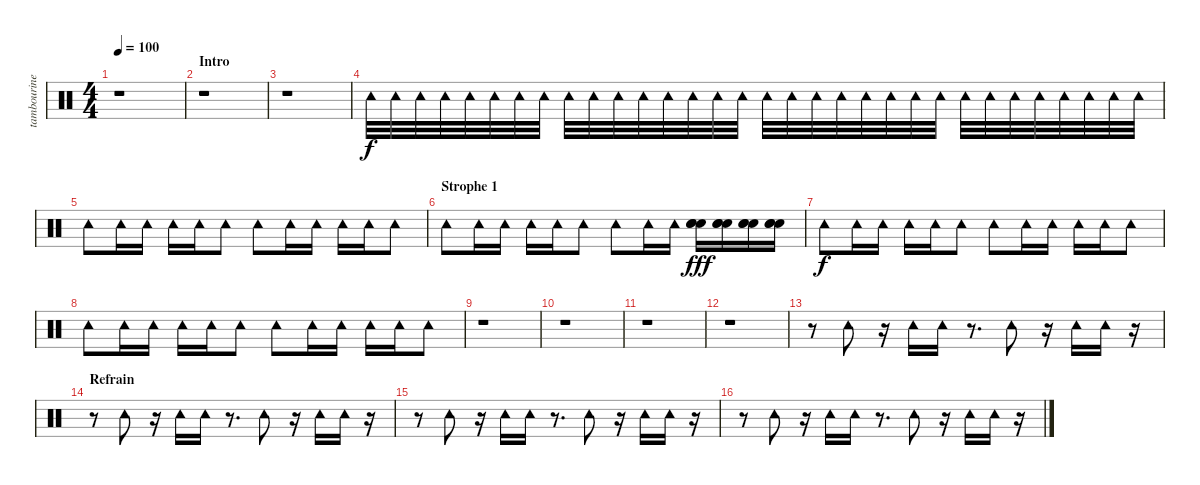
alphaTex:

\track ("tambourine (claps)" "tambourine") {instrument percussion}
\staff {score}
\articulation defaults
\ts (4 4)
\section ("" "")
\tempo 100
\clef neutral
\ks c
r.1{dy f} |
\section ("" "Intro")
r.1 |
r.1 |
"Tambourine (hit)".32{volume 11} "Tambourine (hit)".32 "Tambourine (hit)".32 "Tambourine (hit)".32 "Tambourine (hit)".32 "Tambourine (hit)".32 "Tambourine (hit)".32 "Tambourine (hit)".32 "Tambourine (hit)".32 "Tambourine (hit)".32 "Tambourine (hit)".32 "Tambourine (hit)".32 "Tambourine (hit)".32 "Tambourine (hit)".32 "Tambourine (hit)".32 "Tambourine (hit)".32 "Tambourine (hit)".32 "Tambourine (hit)".32 "Tambourine (hit)".32 "Tambourine (hit)".32 "Tambourine (hit)".32 "Tambourine (hit)".32 "Tambourine (hit)".32 "Tambourine (hit)".32 "Tambourine (hit)".32 "Tambourine (hit)".32 "Tambourine (hit)".32 "Tambourine (hit)".32 "Tambourine (hit)".32 "Tambourine (hit)".32 "Tambourine (hit)".32 "Tambourine (hit)".32{volume 14} |
"Tambourine (hit)".8 "Tambourine (hit)".16 "Tambourine (hit)".16 "Tambourine (hit)".16 "Tambourine (hit)".16 "Tambourine (hit)".8 "Tambourine (hit)".8 "Tambourine (hit)".16 "Tambourine (hit)".16 "Tambourine (hit)".16 "Tambourine (hit)".16 "Tambourine (hit)".8 |
\section ("" "Strophe 1")
"Tambourine (hit)".8 "Tambourine (hit)".16 "Tambourine (hit)".16 "Tambourine (hit)".16 "Tambourine (hit)".16 "Tambourine (hit)".8 "Tambourine (hit)".8 "Tambourine (hit)".16 "Tambourine (hit)".16 ("Hand Clap (hit)" "Hand Clap (hit)" "Hand Clap (hit)").16{dy fff} ("Hand Clap (hit)" "Hand Clap (hit)" "Hand Clap (hit)").16 ("Hand Clap (hit)" "Hand Clap (hit)" "Hand Clap (hit)").16 ("Hand Clap (hit)" "Hand Clap (hit)" "Hand Clap (hit)").16 |
"Tambourine (hit)".8{dy f} "Tambourine (hit)".16 "Tambourine (hit)".16 "Tambourine (hit)".16 "Tambourine (hit)".16 "Tambourine (hit)".8 "Tambourine (hit)".8 "Tambourine (hit)".16 "Tambourine (hit)".16 "Tambourine (hit)".16 "Tambourine (hit)".16 "Tambourine (hit)".8 |
"Tambourine (hit)".8 "Tambourine (hit)".16 "Tambourine (hit)".16 "Tambourine (hit)".16 "Tambourine (hit)".16 "Tambourine (hit)".8 "Tambourine (hit)".8 "Tambourine (hit)".16 "Tambourine (hit)".16 "Tambourine (hit)".16 "Tambourine (hit)".16 "Tambourine (hit)".8 |
r.1 |
r.1 |
r.1 |
r.1 |
r.8 "Tambourine (hit)".8 r.16 "Tambourine (hit)".16 "Tambourine (hit)".16 r.8{d} "Tambourine (hit)".8 r.16 "Tambourine (hit)".16 "Tambourine (hit)".16 r.16 |
\section ("" "Refrain")
r.8 "Tambourine (hit)".8 r.16 "Tambourine (hit)".16 "Tambourine (hit)".16 r.8{d} "Tambourine (hit)".8 r.16 "Tambourine (hit)".16 "Tambourine (hit)".16 r.16 |
r.8 "Tambourine (hit)".8 r.16 "Tambourine (hit)".16 "Tambourine (hit)".16 r.8{d} "Tambourine (hit)".8 r.16 "Tambourine (hit)".16 "Tambourine (hit)".16 r.16 |
r.8 "Tambourine (hit)".8 r.16 "Tambourine (hit)".16 "Tambourine (hit)".16 r.8{d} "Tambourine (hit)".8 r.16 "Tambourine (hit)".16 "Tambourine (hit)".16 r.16
